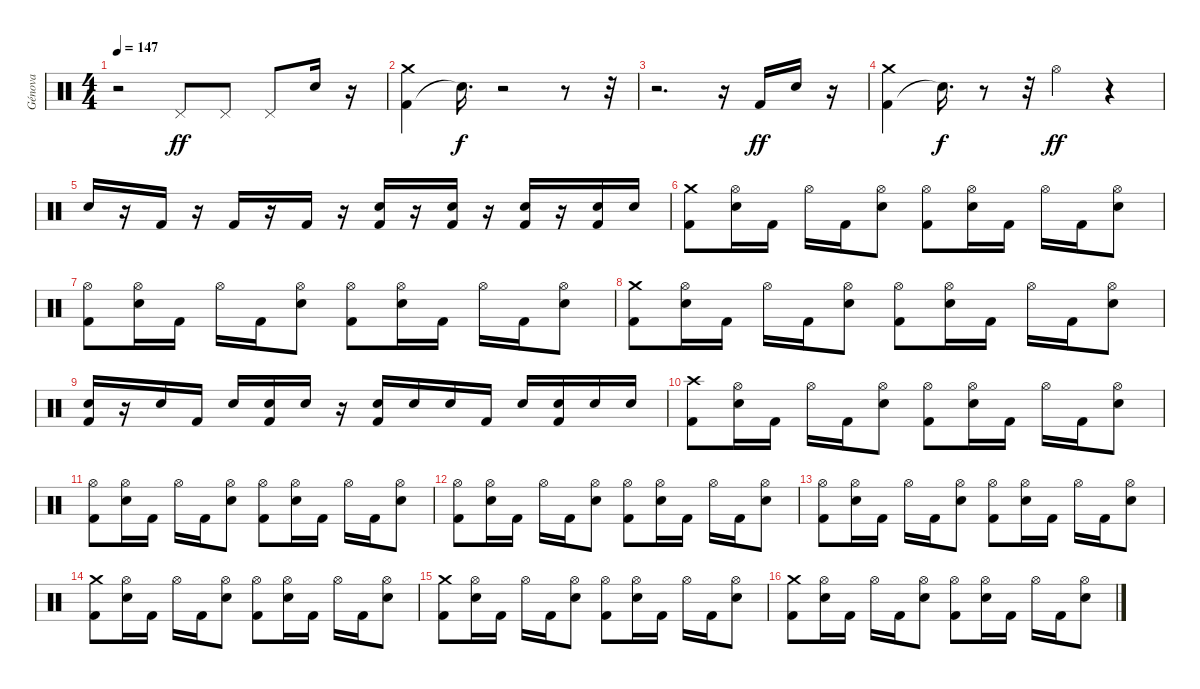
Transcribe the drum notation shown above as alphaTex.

\track ("Génova" "Génova") {instrument percussion}
\staff {score}
\articulation defaults
\ts (4 4)
\tempo 147
\clef neutral
\ks c
r.2{dy ff} "Pedal Hi-Hat (hit)".8 "Pedal Hi-Hat (hit)".8 "Pedal Hi-Hat (hit)".8 "Electric Snare (hit)".16 r.16 |
("Kick (hit) 2" "Crash medium (hit)").4 "Snare (hit)"{t}.16{d dy f} r.2 r.8 r.32 |
r.2{d} r.16 "Kick (hit) 2".16{dy ff} "Electric Snare (hit)".16 r.16 |
("Kick (hit) 2" "Crash medium (hit)").4 "Snare (hit)"{t}.16{d dy f} r.8 r.32 "Hi-Hat (open)".4{dy ff} r.4 |
"Electric Snare (hit)".16 r.16 "Kick (hit) 2".16 r.16 "Kick (hit) 2".16 r.16 "Kick (hit) 2".16 r.16 ("Kick (hit) 2" "Electric Snare (hit)").16 r.16 ("Kick (hit) 2" "Electric Snare (hit)").16 r.16 ("Kick (hit) 2" "Electric Snare (hit)").16 r.16 ("Kick (hit) 2" "Electric Snare (hit)").16 "Electric Snare (hit)".16 |
("Kick (hit) 2" "Crash medium (hit)").8 ("Electric Snare (hit)" "Hi-Hat (open)").16 "Kick (hit) 2".16 "Hi-Hat (open)".16 "Kick (hit) 2".16 ("Electric Snare (hit)" "Hi-Hat (open)").8 ("Kick (hit) 2" "Hi-Hat (open)").8 ("Electric Snare (hit)" "Hi-Hat (open)").16 "Kick (hit) 2".16 "Hi-Hat (open)".16 "Kick (hit) 2".16 ("Electric Snare (hit)" "Hi-Hat (open)").8 |
("Kick (hit) 2" "Hi-Hat (open)").8 ("Electric Snare (hit)" "Hi-Hat (open)").16 "Kick (hit) 2".16 "Hi-Hat (open)".16 "Kick (hit) 2".16 ("Electric Snare (hit)" "Hi-Hat (open)").8 ("Kick (hit) 2" "Hi-Hat (open)").8 ("Electric Snare (hit)" "Hi-Hat (open)").16 "Kick (hit) 2".16 "Hi-Hat (open)".16 "Kick (hit) 2".16 ("Electric Snare (hit)" "Hi-Hat (open)").8 |
("Kick (hit) 2" "Crash medium (hit)").8 ("Electric Snare (hit)" "Hi-Hat (open)").16 "Kick (hit) 2".16 "Hi-Hat (open)".16 "Kick (hit) 2".16 ("Electric Snare (hit)" "Hi-Hat (open)").8 ("Kick (hit) 2" "Hi-Hat (open)").8 ("Electric Snare (hit)" "Hi-Hat (open)").16 "Kick (hit) 2".16 "Hi-Hat (open)".16 "Kick (hit) 2".16 ("Electric Snare (hit)" "Hi-Hat (open)").8 |
("Kick (hit) 2" "Electric Snare (hit)").16 r.16 "Electric Snare (hit)".16 "Kick (hit) 2".16 "Electric Snare (hit)".16 ("Kick (hit) 2" "Electric Snare (hit)").16 "Electric Snare (hit)".16 r.16 ("Kick (hit) 2" "Electric Snare (hit)").16 "Electric Snare (hit)".16 "Electric Snare (hit)".16 "Kick (hit) 2".16 "Electric Snare (hit)".16 ("Kick (hit) 2" "Electric Snare (hit)").16 "Electric Snare (hit)".16 "Electric Snare (hit)".16 |
("Kick (hit) 2" "Crash high (hit)").8 ("Electric Snare (hit)" "Hi-Hat (open)").16 "Kick (hit) 2".16 "Hi-Hat (open)".16 "Kick (hit) 2".16 ("Electric Snare (hit)" "Hi-Hat (open)").8 ("Kick (hit) 2" "Hi-Hat (open)").8 ("Electric Snare (hit)" "Hi-Hat (open)").16 "Kick (hit) 2".16 "Hi-Hat (open)".16 "Kick (hit) 2".16 ("Electric Snare (hit)" "Hi-Hat (open)").8 |
("Kick (hit) 2" "Hi-Hat (open)").8 ("Electric Snare (hit)" "Hi-Hat (open)").16 "Kick (hit) 2".16 "Hi-Hat (open)".16 "Kick (hit) 2".16 ("Electric Snare (hit)" "Hi-Hat (open)").8 ("Kick (hit) 2" "Hi-Hat (open)").8 ("Electric Snare (hit)" "Hi-Hat (open)").16 "Kick (hit) 2".16 "Hi-Hat (open)".16 "Kick (hit) 2".16 ("Electric Snare (hit)" "Hi-Hat (open)").8 |
("Kick (hit) 2" "Hi-Hat (open)").8 ("Electric Snare (hit)" "Hi-Hat (open)").16 "Kick (hit) 2".16 "Hi-Hat (open)".16 "Kick (hit) 2".16 ("Electric Snare (hit)" "Hi-Hat (open)").8 ("Kick (hit) 2" "Hi-Hat (open)").8 ("Electric Snare (hit)" "Hi-Hat (open)").16 "Kick (hit) 2".16 "Hi-Hat (open)".16 "Kick (hit) 2".16 ("Electric Snare (hit)" "Hi-Hat (open)").8 |
("Kick (hit) 2" "Hi-Hat (open)").8 ("Electric Snare (hit)" "Hi-Hat (open)").16 "Kick (hit) 2".16 "Hi-Hat (open)".16 "Kick (hit) 2".16 ("Electric Snare (hit)" "Hi-Hat (open)").8 ("Kick (hit) 2" "Hi-Hat (open)").8 ("Electric Snare (hit)" "Hi-Hat (open)").16 "Kick (hit) 2".16 "Hi-Hat (open)".16 "Kick (hit) 2".16 ("Electric Snare (hit)" "Hi-Hat (open)").8 |
("Kick (hit) 2" "Crash medium (hit)").8 ("Electric Snare (hit)" "Hi-Hat (open)").16 "Kick (hit) 2".16 "Hi-Hat (open)".16 "Kick (hit) 2".16 ("Electric Snare (hit)" "Hi-Hat (open)").8 ("Hi-Hat (open)" "Kick (hit) 2").8 ("Electric Snare (hit)" "Hi-Hat (open)").16 "Kick (hit) 2".16 "Hi-Hat (open)".16 "Kick (hit) 2".16 ("Electric Snare (hit)" "Hi-Hat (open)").8 |
("Kick (hit) 2" "Crash medium (hit)").8 ("Electric Snare (hit)" "Hi-Hat (open)").16 "Kick (hit) 2".16 "Hi-Hat (open)".16 "Kick (hit) 2".16 ("Electric Snare (hit)" "Hi-Hat (open)").8 ("Hi-Hat (open)" "Kick (hit) 2").8 ("Electric Snare (hit)" "Hi-Hat (open)").16 "Kick (hit) 2".16 "Hi-Hat (open)".16 "Kick (hit) 2".16 ("Electric Snare (hit)" "Hi-Hat (open)").8 |
("Kick (hit) 2" "Crash medium (hit)").8 ("Electric Snare (hit)" "Hi-Hat (open)").16 "Kick (hit) 2".16 "Hi-Hat (open)".16 "Kick (hit) 2".16 ("Electric Snare (hit)" "Hi-Hat (open)").8 ("Hi-Hat (open)" "Kick (hit) 2").8 ("Electric Snare (hit)" "Hi-Hat (open)").16 "Kick (hit) 2".16 "Hi-Hat (open)".16 "Kick (hit) 2".16 ("Electric Snare (hit)" "Hi-Hat (open)").8
